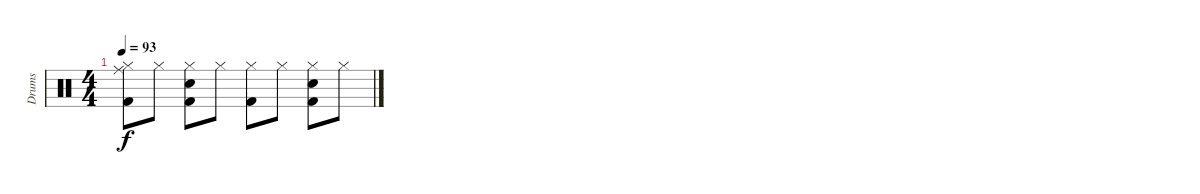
\track ("Drums" "Drums") {instrument percussion}
\staff {score}
\articulation defaults
\ts (4 4)
\tempo 93
\clef neutral
\ks c
("Ride (middle)" "Hi-Hat (closed)" "Kick (hit) 2").8{dy f} "Hi-Hat (closed)".8 ("Hi-Hat (closed)" "Snare (hit) 2" "Kick (hit) 2").8 "Hi-Hat (closed)".8 ("Hi-Hat (closed)" "Kick (hit) 2").8 "Hi-Hat (closed)".8 ("Hi-Hat (closed)" "Snare (hit) 2" "Kick (hit) 2").8 "Hi-Hat (closed)".8
